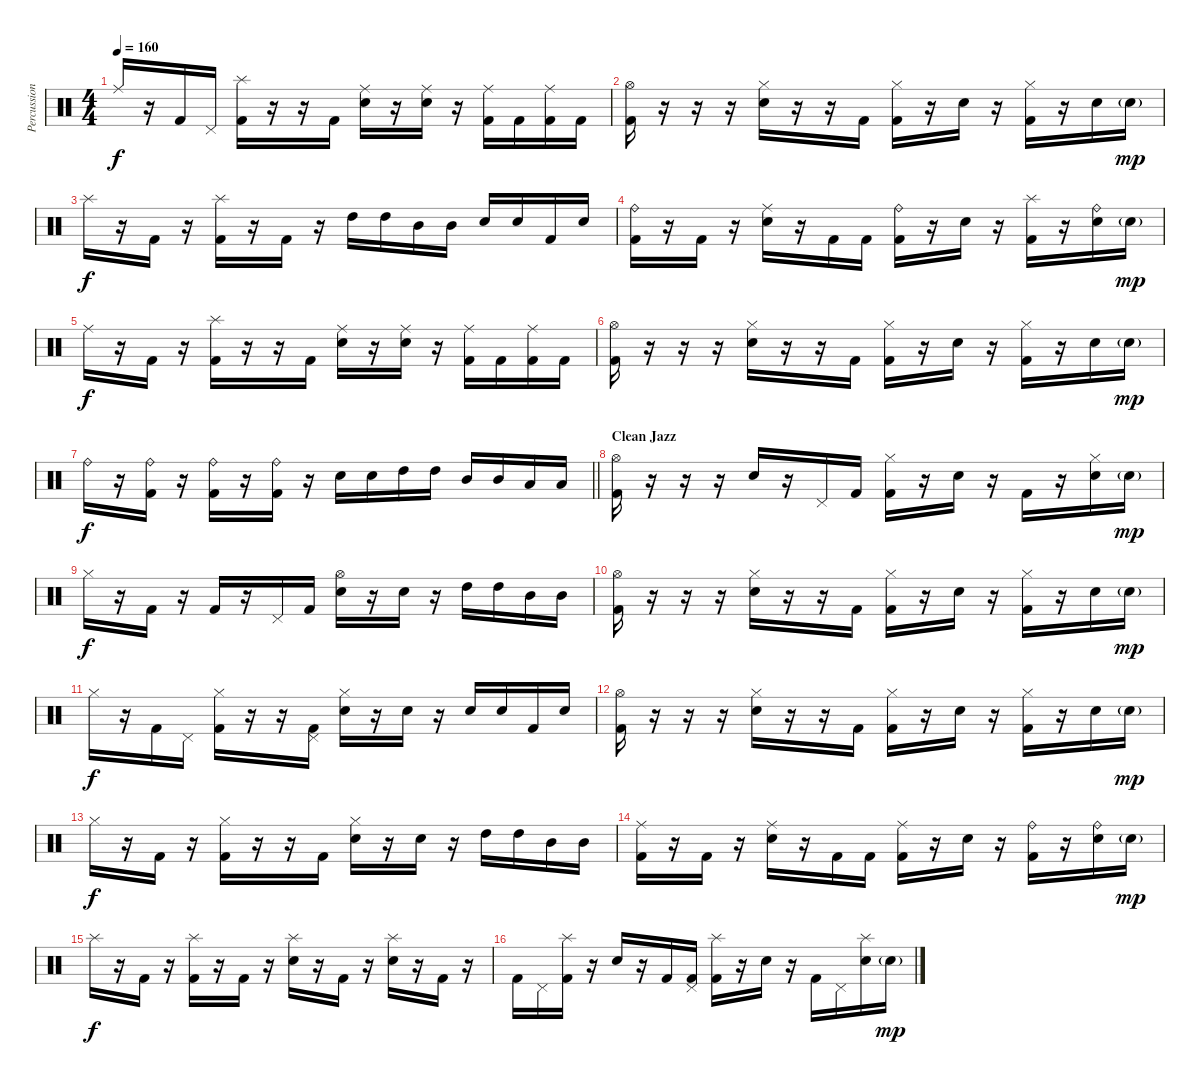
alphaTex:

\track ("Percussion" "Percussion") {instrument percussion}
\staff {score}
\articulation defaults
\ts (4 4)
\tempo 160
\clef neutral
\ks c "Ride (middle)".16{dy f}
r.16 "Kick (hit) 2".16 "Pedal Hi-Hat (hit)".16 ("Splash (hit)" "Kick (hit) 2").16 r.16 r.16 "Kick (hit) 2".16 ("Ride (middle)" "Electric Snare (hit)").16 r.16 ("Ride (middle)" "Electric Snare (hit)").16 r.16 ("Ride (middle)" "Kick (hit) 2").16 "Kick (hit) 2".16 ("Ride (middle)" "Kick (hit) 2").16 "Kick (hit) 2".16 |
("Hi-Hat (open)" "Kick (hit) 2").16 r.16 r.16 r.16 ("Hi-Hat (closed)" "Electric Snare (hit)").16 r.16 r.16 "Kick (hit) 2".16 ("Hi-Hat (closed)" "Kick (hit) 2").16 r.16 "Electric Snare (hit)".16 r.16 ("Hi-Hat (closed)" "Kick (hit) 2").16 r.16 "Electric Snare (hit)".16 "Electric Snare (hit)"{g}.16{dy mp} |
"Splash (hit)".16{dy f} r.16 "Kick (hit) 2".16 r.16 ("Splash (hit)" "Kick (hit) 2").16 r.16 "Kick (hit) 2".16 r.16 "High Tom (hit)".16 "High Tom (hit)".16 "Mid Tom (hit)".16 "Mid Tom (hit)".16 "Electric Snare (hit)".16 "Electric Snare (hit)".16 "Kick (hit) 2".16 "Electric Snare (hit)".16 |
("Ride (bell)" "Kick (hit) 2").16 r.16 "Kick (hit) 2".16 r.16 ("Ride (middle)" "Electric Snare (hit)").16 r.16 "Kick (hit) 2".16 "Kick (hit) 2".16 ("Ride (bell)" "Kick (hit) 2").16 r.16 "Electric Snare (hit)".16 r.16 ("Splash (hit)" "Kick (hit) 2").16 r.16 ("Ride (bell)" "Electric Snare (hit)").16 "Electric Snare (hit)"{g}.16{dy mp} |
"Ride (middle)".16{dy f} r.16 "Kick (hit) 2".16 r.16 ("Splash (hit)" "Kick (hit) 2").16 r.16 r.16 "Kick (hit) 2".16 ("Ride (middle)" "Electric Snare (hit)").16 r.16 ("Ride (middle)" "Electric Snare (hit)").16 r.16 ("Ride (middle)" "Kick (hit) 2").16 "Kick (hit) 2".16 ("Ride (middle)" "Kick (hit) 2").16 "Kick (hit) 2".16 |
("Hi-Hat (open)" "Kick (hit) 2").16 r.16 r.16 r.16 ("Hi-Hat (closed)" "Electric Snare (hit)").16 r.16 r.16 "Kick (hit) 2".16 ("Hi-Hat (closed)" "Kick (hit) 2").16 r.16 "Electric Snare (hit)".16 r.16 ("Hi-Hat (closed)" "Kick (hit) 2").16 r.16 "Electric Snare (hit)".16 "Electric Snare (hit)"{g}.16{dy mp} |
\barLineRight lightlight "Ride (bell)".16{dy f}
r.16 ("Ride (bell)" "Kick (hit) 2").16 r.16 ("Ride (bell)" "Kick (hit) 2").16 r.16 ("Ride (bell)" "Kick (hit) 2").16 r.16 "Electric Snare (hit)".16 "Electric Snare (hit)".16 "High Tom (hit)".16 "High Tom (hit)".16 "Mid Tom (hit)".16 "Mid Tom (hit)".16 "Low Tom (hit)".16 "Low Tom (hit)".16 |
\section ("" "Clean Jazz")
("Hi-Hat (open)" "Kick (hit) 2").16{volume 11} r.16 r.16 r.16 "Electric Snare (hit)".16 r.16 "Pedal Hi-Hat (hit)".16 "Kick (hit) 2".16 ("Hi-Hat (closed)" "Kick (hit) 2").16 r.16 "Electric Snare (hit)".16 r.16 "Kick (hit) 2".16 r.16 ("Hi-Hat (closed)" "Electric Snare (hit)").16 "Electric Snare (hit)"{g}.16{dy mp} |
"Hi-Hat (closed)".16{dy f} r.16 "Kick (hit) 2".16 r.16 "Kick (hit) 2".16 r.16 "Pedal Hi-Hat (hit)".16 "Kick (hit) 2".16 ("Hi-Hat (open)" "Electric Snare (hit)").16 r.16 "Electric Snare (hit)".16 r.16 "High Tom (hit)".16 "High Tom (hit)".16 "Mid Tom (hit)".16 "Mid Tom (hit)".16 |
("Hi-Hat (open)" "Kick (hit) 2").16 r.16 r.16 r.16 ("Hi-Hat (closed)" "Electric Snare (hit)").16 r.16 r.16 "Kick (hit) 2".16 ("Hi-Hat (closed)" "Kick (hit) 2").16 r.16 "Electric Snare (hit)".16 r.16 ("Hi-Hat (closed)" "Kick (hit) 2").16 r.16 "Electric Snare (hit)".16 "Electric Snare (hit)"{g}.16{dy mp} |
"Hi-Hat (closed)".16{dy f} r.16 "Kick (hit) 2".16 "Pedal Hi-Hat (hit)".16 ("Hi-Hat (closed)" "Kick (hit) 2").16 r.16 r.16 ("Pedal Hi-Hat (hit)" "Kick (hit) 2").16 ("Hi-Hat (closed)" "Electric Snare (hit)").16 r.16 "Electric Snare (hit)".16 r.16 "Electric Snare (hit)".16 "Electric Snare (hit)".16 "Kick (hit) 2".16 "Electric Snare (hit)".16 |
("Hi-Hat (open)" "Kick (hit) 2").16 r.16 r.16 r.16 ("Hi-Hat (closed)" "Electric Snare (hit)").16 r.16 r.16 "Kick (hit) 2".16 ("Hi-Hat (closed)" "Kick (hit) 2").16 r.16 "Electric Snare (hit)".16 r.16 ("Hi-Hat (closed)" "Kick (hit) 2").16 r.16 "Electric Snare (hit)".16 "Electric Snare (hit)"{g}.16{dy mp} |
"Hi-Hat (closed)".16{dy f} r.16 "Kick (hit) 2".16 r.16 ("Hi-Hat (closed)" "Kick (hit) 2").16 r.16 r.16 "Kick (hit) 2".16 ("Hi-Hat (closed)" "Electric Snare (hit)").16 r.16 "Electric Snare (hit)".16 r.16 "High Tom (hit)".16 "High Tom (hit)".16 "Mid Tom (hit)".16 "Mid Tom (hit)".16 |
("Ride (middle)" "Kick (hit) 2").16 r.16 "Kick (hit) 2".16 r.16 ("Ride (middle)" "Electric Snare (hit)").16 r.16 "Kick (hit) 2".16 "Kick (hit) 2".16 ("Ride (middle)" "Kick (hit) 2").16 r.16 "Electric Snare (hit)".16 r.16 ("Ride (bell)" "Kick (hit) 2").16 r.16 ("Ride (bell)" "Electric Snare (hit)").16 "Electric Snare (hit)"{g}.16{dy mp} |
"Splash (hit)".16{dy f} r.16 "Kick (hit) 2".16 r.16 ("Splash (hit)" "Kick (hit) 2").16 r.16 "Kick (hit) 2".16 r.16 ("Splash (hit)" "Electric Snare (hit)").16 r.16 "Kick (hit) 2".16 r.16 ("Splash (hit)" "Electric Snare (hit)").16 r.16 "Kick (hit) 2".16 r.16 |
"Kick (hit) 2".16 "Pedal Hi-Hat (hit)".16 ("Splash (hit)" "Kick (hit) 2").16 r.16 "Electric Snare (hit)".16 r.16 "Kick (hit) 2".16 ("Pedal Hi-Hat (hit)" "Kick (hit) 2").16 ("Splash (hit)" "Kick (hit) 2").16 r.16 "Electric Snare (hit)".16 r.16 "Kick (hit) 2".16 "Pedal Hi-Hat (hit)".16 ("Splash (hit)" "Electric Snare (hit)").16 "Electric Snare (hit)"{g}.16{dy mp}
